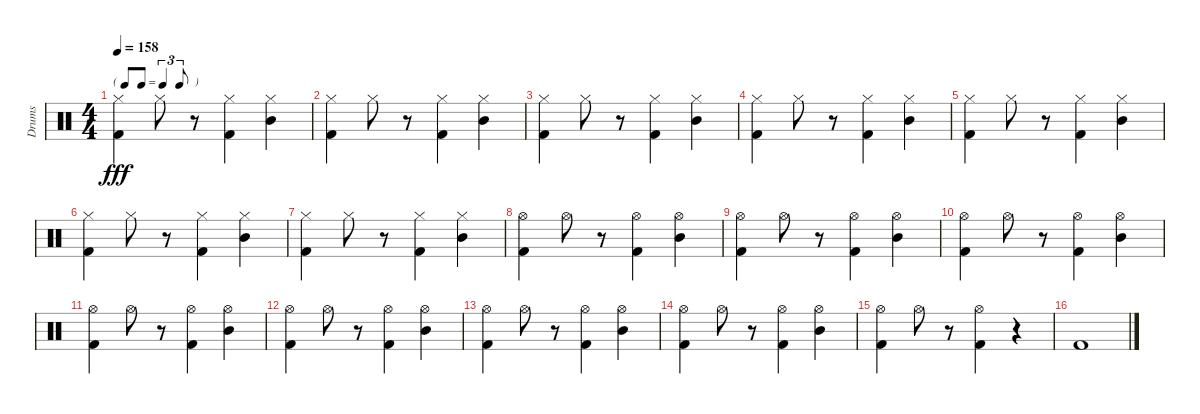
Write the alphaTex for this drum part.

\track ("Drums" "Drums") {instrument percussion}
\staff {score}
\articulation defaults
\ts (4 4)
\tf triplet8th
\tempo 158
\clef neutral
\ks c
("Hi-Hat (closed)" "Kick (hit) 2").4{dy fff} "Hi-Hat (closed)".8 r.8 ("Hi-Hat (closed)" "Kick (hit) 2").4 ("Hi-Hat (closed)" "Mid Tom (hit)").4 |
("Hi-Hat (closed)" "Kick (hit) 2").4 "Hi-Hat (closed)".8 r.8 ("Hi-Hat (closed)" "Kick (hit) 2").4 ("Hi-Hat (closed)" "Mid Tom (hit)").4 |
("Hi-Hat (closed)" "Kick (hit) 2").4 "Hi-Hat (closed)".8 r.8 ("Hi-Hat (closed)" "Kick (hit) 2").4 ("Hi-Hat (closed)" "Mid Tom (hit)").4 |
("Hi-Hat (closed)" "Kick (hit) 2").4 "Hi-Hat (closed)".8 r.8 ("Hi-Hat (closed)" "Kick (hit) 2").4 ("Hi-Hat (closed)" "Mid Tom (hit)").4 |
("Hi-Hat (closed)" "Kick (hit) 2").4 "Hi-Hat (closed)".8 r.8 ("Hi-Hat (closed)" "Kick (hit) 2").4 ("Hi-Hat (closed)" "Mid Tom (hit)").4 |
("Hi-Hat (closed)" "Kick (hit) 2").4 "Hi-Hat (closed)".8 r.8 ("Hi-Hat (closed)" "Kick (hit) 2").4 ("Hi-Hat (closed)" "Mid Tom (hit)").4 |
("Hi-Hat (closed)" "Kick (hit) 2").4 "Hi-Hat (closed)".8 r.8 ("Hi-Hat (closed)" "Kick (hit) 2").4 ("Hi-Hat (closed)" "Mid Tom (hit)").4 |
("Hi-Hat (open)" "Kick (hit) 2").4 "Hi-Hat (open)".8 r.8 ("Hi-Hat (open)" "Kick (hit) 2").4 ("Hi-Hat (open)" "Mid Tom (hit)").4 |
("Hi-Hat (open)" "Kick (hit) 2").4 "Hi-Hat (open)".8 r.8 ("Hi-Hat (open)" "Kick (hit) 2").4 ("Hi-Hat (open)" "Mid Tom (hit)").4 |
("Hi-Hat (open)" "Kick (hit) 2").4 "Hi-Hat (open)".8 r.8 ("Hi-Hat (open)" "Kick (hit) 2").4 ("Hi-Hat (open)" "Mid Tom (hit)").4 |
("Hi-Hat (open)" "Kick (hit) 2").4 "Hi-Hat (open)".8 r.8 ("Hi-Hat (open)" "Kick (hit) 2").4 ("Hi-Hat (open)" "Mid Tom (hit)").4 |
("Hi-Hat (open)" "Kick (hit) 2").4 "Hi-Hat (open)".8 r.8 ("Hi-Hat (open)" "Kick (hit) 2").4 ("Hi-Hat (open)" "Mid Tom (hit)").4 |
("Hi-Hat (open)" "Kick (hit) 2").4 "Hi-Hat (open)".8 r.8 ("Hi-Hat (open)" "Kick (hit) 2").4 ("Hi-Hat (open)" "Mid Tom (hit)").4 |
("Hi-Hat (open)" "Kick (hit) 2").4 "Hi-Hat (open)".8 r.8 ("Hi-Hat (open)" "Kick (hit) 2").4 ("Hi-Hat (open)" "Mid Tom (hit)").4 |
("Hi-Hat (open)" "Kick (hit) 2").4 "Hi-Hat (open)".8 r.8 ("Hi-Hat (open)" "Kick (hit) 2").4 r.4 |
"Kick (hit) 2".1
